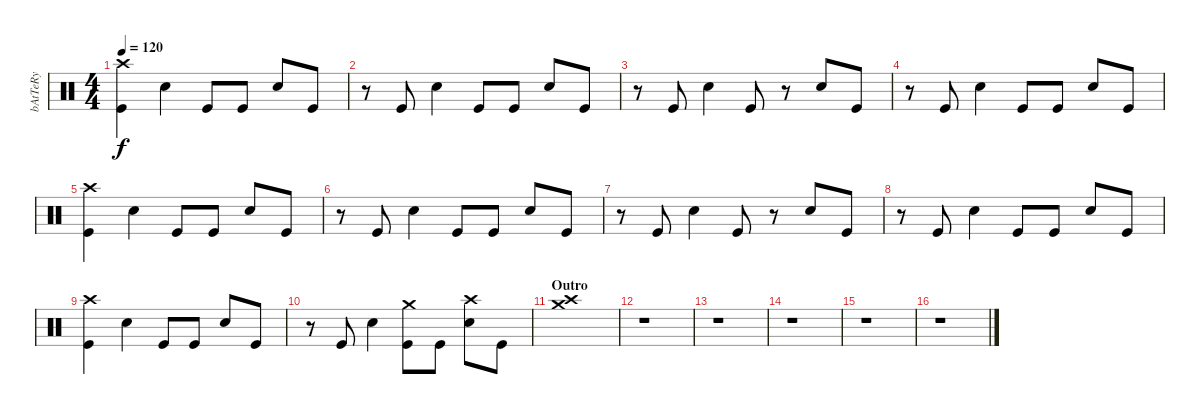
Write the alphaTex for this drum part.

\track ("bAtTeRy" "bAtTeRy") {instrument percussion}
\staff {score}
\articulation defaults
\ts (4 4)
\tempo 120
\clef neutral
\ks c
("Crash high (hit)" "Kick (hit)").4{dy f} "Electric Snare (hit)".4 "Kick (hit)".8 "Kick (hit)".8 "Electric Snare (hit)".8 "Kick (hit)".8 |
r.8 "Kick (hit)".8 "Electric Snare (hit)".4 "Kick (hit)".8 "Kick (hit)".8 "Electric Snare (hit)".8 "Kick (hit)".8 |
r.8 "Kick (hit)".8 "Electric Snare (hit)".4 "Kick (hit)".8 r.8 "Electric Snare (hit)".8 "Kick (hit)".8 |
r.8 "Kick (hit)".8 "Electric Snare (hit)".4 "Kick (hit)".8 "Kick (hit)".8 "Electric Snare (hit)".8 "Kick (hit)".8 |
("Crash high (hit)" "Kick (hit)").4 "Electric Snare (hit)".4 "Kick (hit)".8 "Kick (hit)".8 "Electric Snare (hit)".8 "Kick (hit)".8 |
r.8 "Kick (hit)".8 "Electric Snare (hit)".4 "Kick (hit)".8 "Kick (hit)".8 "Electric Snare (hit)".8 "Kick (hit)".8 |
r.8 "Kick (hit)".8 "Electric Snare (hit)".4 "Kick (hit)".8 r.8 "Electric Snare (hit)".8 "Kick (hit)".8 |
r.8 "Kick (hit)".8 "Electric Snare (hit)".4 "Kick (hit)".8 "Kick (hit)".8 "Electric Snare (hit)".8 "Kick (hit)".8 |
("Crash high (hit)" "Kick (hit)").4 "Electric Snare (hit)".4 "Kick (hit)".8 "Kick (hit)".8 "Electric Snare (hit)".8 "Kick (hit)".8 |
r.8 "Kick (hit)".8 "Electric Snare (hit)".4 ("Crash medium (hit)" "Kick (hit)").8 "Kick (hit)".8 ("Crash high (hit)" "Electric Snare (hit)").8 "Kick (hit)".8 |
\section ("" "Outro")
("Crash medium (hit)" "Crash high (hit)").1 |
r.1 |
r.1 |
r.1 |
r.1 |
r.1
